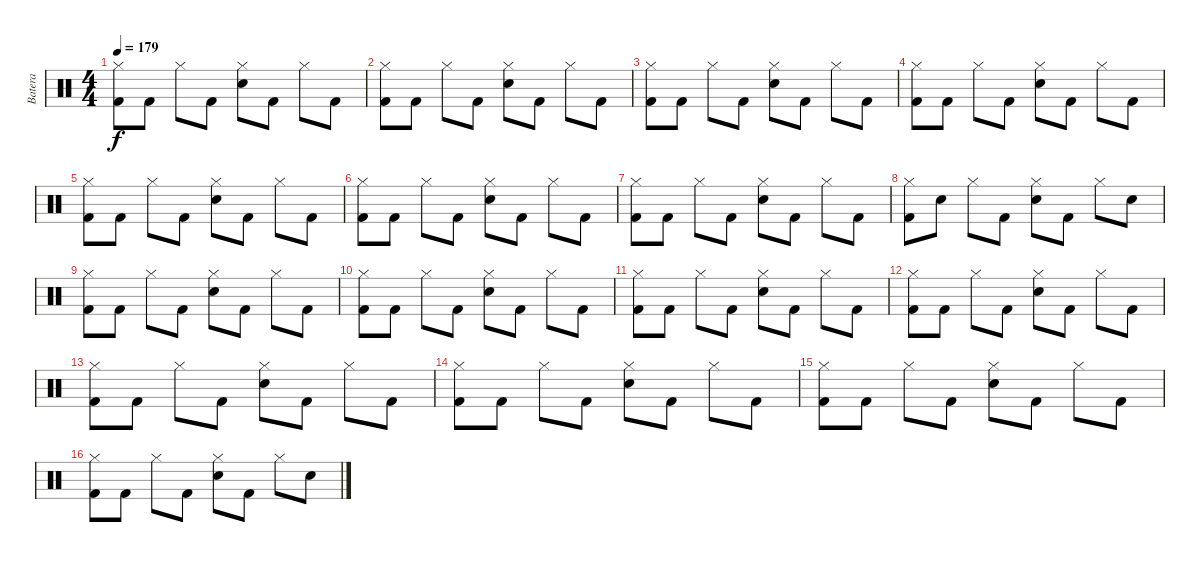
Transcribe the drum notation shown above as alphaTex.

\track ("Batera" "Batera") {instrument percussion}
\staff {score}
\articulation defaults
\ts (4 4)
\tempo 179
\clef neutral
\ks c
("Hi-Hat (closed)" "Kick (hit) 2").8{dy f volume 16} "Kick (hit) 2".8 "Hi-Hat (closed)".8 "Kick (hit) 2".8 ("Hi-Hat (closed)" "Electric Snare (hit)").8 "Kick (hit) 2".8 "Hi-Hat (closed)".8 "Kick (hit) 2".8 |
("Hi-Hat (closed)" "Kick (hit) 2").8 "Kick (hit) 2".8 "Hi-Hat (closed)".8 "Kick (hit) 2".8 ("Hi-Hat (closed)" "Electric Snare (hit)").8 "Kick (hit) 2".8 "Hi-Hat (closed)".8 "Kick (hit) 2".8 |
("Hi-Hat (closed)" "Kick (hit) 2").8 "Kick (hit) 2".8 "Hi-Hat (closed)".8 "Kick (hit) 2".8 ("Hi-Hat (closed)" "Electric Snare (hit)").8 "Kick (hit) 2".8 "Hi-Hat (closed)".8 "Kick (hit) 2".8 |
("Hi-Hat (closed)" "Kick (hit) 2").8 "Kick (hit) 2".8 "Hi-Hat (closed)".8 "Kick (hit) 2".8 ("Hi-Hat (closed)" "Electric Snare (hit)").8 "Kick (hit) 2".8 "Hi-Hat (closed)".8 "Kick (hit) 2".8 |
("Hi-Hat (closed)" "Kick (hit) 2").8 "Kick (hit) 2".8 "Hi-Hat (closed)".8 "Kick (hit) 2".8 ("Hi-Hat (closed)" "Electric Snare (hit)").8 "Kick (hit) 2".8 "Hi-Hat (closed)".8 "Kick (hit) 2".8 |
("Hi-Hat (closed)" "Kick (hit) 2").8 "Kick (hit) 2".8 "Hi-Hat (closed)".8 "Kick (hit) 2".8 ("Hi-Hat (closed)" "Electric Snare (hit)").8 "Kick (hit) 2".8 "Hi-Hat (closed)".8 "Kick (hit) 2".8 |
("Hi-Hat (closed)" "Kick (hit) 2").8 "Kick (hit) 2".8 "Hi-Hat (closed)".8 "Kick (hit) 2".8 ("Hi-Hat (closed)" "Electric Snare (hit)").8 "Kick (hit) 2".8 "Hi-Hat (closed)".8 "Kick (hit) 2".8 |
("Hi-Hat (closed)" "Kick (hit) 2").8 "Electric Snare (hit)".8 "Hi-Hat (closed)".8 "Kick (hit) 2".8 ("Hi-Hat (closed)" "Electric Snare (hit)").8 "Kick (hit) 2".8 "Hi-Hat (closed)".8 "Electric Snare (hit)".8 |
("Hi-Hat (closed)" "Kick (hit) 2").8{volume 16} "Kick (hit) 2".8 "Hi-Hat (closed)".8 "Kick (hit) 2".8 ("Hi-Hat (closed)" "Electric Snare (hit)").8 "Kick (hit) 2".8 "Hi-Hat (closed)".8 "Kick (hit) 2".8 |
("Hi-Hat (closed)" "Kick (hit) 2").8 "Kick (hit) 2".8 "Hi-Hat (closed)".8 "Kick (hit) 2".8 ("Hi-Hat (closed)" "Electric Snare (hit)").8 "Kick (hit) 2".8 "Hi-Hat (closed)".8 "Kick (hit) 2".8 |
("Hi-Hat (closed)" "Kick (hit) 2").8 "Kick (hit) 2".8 "Hi-Hat (closed)".8 "Kick (hit) 2".8 ("Hi-Hat (closed)" "Electric Snare (hit)").8 "Kick (hit) 2".8 "Hi-Hat (closed)".8 "Kick (hit) 2".8 |
("Hi-Hat (closed)" "Kick (hit) 2").8 "Kick (hit) 2".8 "Hi-Hat (closed)".8 "Kick (hit) 2".8 ("Hi-Hat (closed)" "Electric Snare (hit)").8 "Kick (hit) 2".8 "Hi-Hat (closed)".8 "Kick (hit) 2".8 |
("Hi-Hat (closed)" "Kick (hit) 2").8 "Kick (hit) 2".8 "Hi-Hat (closed)".8 "Kick (hit) 2".8 ("Hi-Hat (closed)" "Electric Snare (hit)").8 "Kick (hit) 2".8 "Hi-Hat (closed)".8 "Kick (hit) 2".8 |
("Hi-Hat (closed)" "Kick (hit) 2").8 "Kick (hit) 2".8 "Hi-Hat (closed)".8 "Kick (hit) 2".8 ("Hi-Hat (closed)" "Electric Snare (hit)").8 "Kick (hit) 2".8 "Hi-Hat (closed)".8 "Kick (hit) 2".8 |
("Hi-Hat (closed)" "Kick (hit) 2").8 "Kick (hit) 2".8 "Hi-Hat (closed)".8 "Kick (hit) 2".8 ("Hi-Hat (closed)" "Electric Snare (hit)").8 "Kick (hit) 2".8 "Hi-Hat (closed)".8 "Kick (hit) 2".8 |
("Hi-Hat (closed)" "Kick (hit) 2").8 "Kick (hit) 2".8 "Hi-Hat (closed)".8 "Kick (hit) 2".8 ("Hi-Hat (closed)" "Electric Snare (hit)").8 "Kick (hit) 2".8 "Hi-Hat (closed)".8 "Electric Snare (hit)".8
